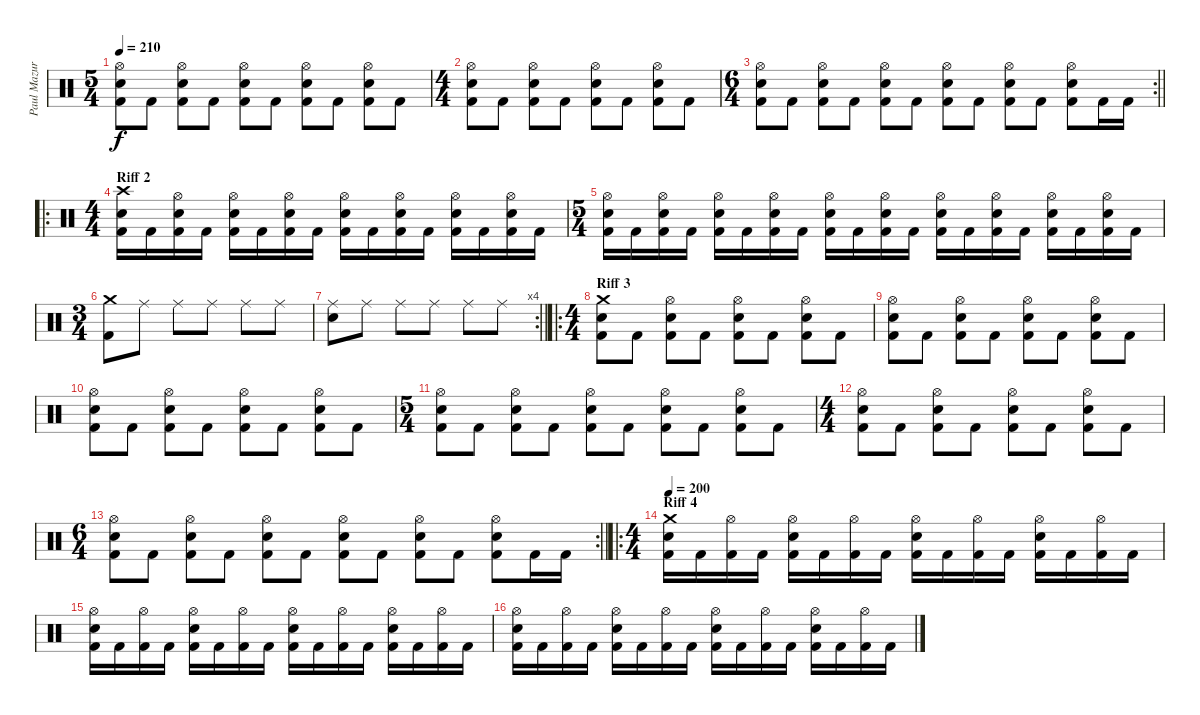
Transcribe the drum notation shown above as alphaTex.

\track ("Paul Mazurkiewicz" "Paul Mazur") {instrument percussion}
\staff {score}
\articulation defaults
\ts (5 4)
\tempo 210
\clef neutral
\ks c
("Hi-Hat (open)" "Electric Snare (hit)" "Kick (hit) 2").8{dy f} "Kick (hit) 2".8 ("Hi-Hat (open)" "Electric Snare (hit)" "Kick (hit) 2").8 "Kick (hit) 2".8 ("Hi-Hat (open)" "Electric Snare (hit)" "Kick (hit) 2").8 "Kick (hit) 2".8 ("Hi-Hat (open)" "Electric Snare (hit)" "Kick (hit) 2").8 "Kick (hit) 2".8 ("Hi-Hat (open)" "Electric Snare (hit)" "Kick (hit) 2").8 "Kick (hit) 2".8 |
\ts (4 4)
("Hi-Hat (open)" "Electric Snare (hit)" "Kick (hit) 2").8 "Kick (hit) 2".8 ("Hi-Hat (open)" "Electric Snare (hit)" "Kick (hit) 2").8 "Kick (hit) 2".8 ("Hi-Hat (open)" "Electric Snare (hit)" "Kick (hit) 2").8 "Kick (hit) 2".8 ("Hi-Hat (open)" "Electric Snare (hit)" "Kick (hit) 2").8 "Kick (hit) 2".8 |
\rc 2
\ts (6 4)
\barLineRight lightlight
("Hi-Hat (open)" "Electric Snare (hit)" "Kick (hit) 2").8 "Kick (hit) 2".8 ("Hi-Hat (open)" "Electric Snare (hit)" "Kick (hit) 2").8 "Kick (hit) 2".8 ("Hi-Hat (open)" "Electric Snare (hit)" "Kick (hit) 2").8 "Kick (hit) 2".8 ("Hi-Hat (open)" "Electric Snare (hit)" "Kick (hit) 2").8 "Kick (hit) 2".8 ("Hi-Hat (open)" "Electric Snare (hit)" "Kick (hit) 2").8 "Kick (hit) 2".8 ("Hi-Hat (open)" "Electric Snare (hit)" "Kick (hit) 2").8 "Kick (hit) 2".16 "Kick (hit) 2".16 |
\ro
\ts (4 4)
\section ("" "Riff 2")
("Crash high (hit)" "Electric Snare (hit)" "Kick (hit) 2").16 "Kick (hit) 2".16 ("Hi-Hat (open)" "Electric Snare (hit)" "Kick (hit) 2").16 "Kick (hit) 2".16 ("Hi-Hat (open)" "Electric Snare (hit)" "Kick (hit) 2").16 "Kick (hit) 2".16 ("Hi-Hat (open)" "Electric Snare (hit)" "Kick (hit) 2").16 "Kick (hit) 2".16 ("Hi-Hat (open)" "Electric Snare (hit)" "Kick (hit) 2").16 "Kick (hit) 2".16 ("Hi-Hat (open)" "Electric Snare (hit)" "Kick (hit) 2").16 "Kick (hit) 2".16 ("Hi-Hat (open)" "Electric Snare (hit)" "Kick (hit) 2").16 "Kick (hit) 2".16 ("Hi-Hat (open)" "Electric Snare (hit)" "Kick (hit) 2").16 "Kick (hit) 2".16 |
\ts (5 4)
("Hi-Hat (open)" "Electric Snare (hit)" "Kick (hit) 2").16 "Kick (hit) 2".16 ("Hi-Hat (open)" "Electric Snare (hit)" "Kick (hit) 2").16 "Kick (hit) 2".16 ("Hi-Hat (open)" "Electric Snare (hit)" "Kick (hit) 2").16 "Kick (hit) 2".16 ("Hi-Hat (open)" "Electric Snare (hit)" "Kick (hit) 2").16 "Kick (hit) 2".16 ("Hi-Hat (open)" "Electric Snare (hit)" "Kick (hit) 2").16 "Kick (hit) 2".16 ("Hi-Hat (open)" "Electric Snare (hit)" "Kick (hit) 2").16 "Kick (hit) 2".16 ("Hi-Hat (open)" "Electric Snare (hit)" "Kick (hit) 2").16 "Kick (hit) 2".16 ("Hi-Hat (open)" "Electric Snare (hit)" "Kick (hit) 2").16 "Kick (hit) 2".16 ("Hi-Hat (open)" "Electric Snare (hit)" "Kick (hit) 2").16 "Kick (hit) 2".16 ("Hi-Hat (open)" "Electric Snare (hit)" "Kick (hit) 2").16 "Kick (hit) 2".16 |
\ts (3 4)
("Crash medium (hit)" "Kick (hit) 2").8 "Ride (middle)".8 "Ride (middle)".8 "Ride (middle)".8 "Ride (middle)".8 "Ride (middle)".8 |
\rc 4
\barLineRight lightlight
("Ride (middle)" "Electric Snare (hit)").8 "Ride (middle)".8 "Ride (middle)".8 "Ride (middle)".8 "Ride (middle)".8 "Ride (middle)".8 |
\ro
\ts (4 4)
\section ("" "Riff 3")
("Crash medium (hit)" "Electric Snare (hit)" "Kick (hit) 2").8 "Kick (hit) 2".8 ("Hi-Hat (open)" "Electric Snare (hit)" "Kick (hit) 2").8 "Kick (hit) 2".8 ("Hi-Hat (open)" "Electric Snare (hit)" "Kick (hit) 2").8 "Kick (hit) 2".8 ("Hi-Hat (open)" "Electric Snare (hit)" "Kick (hit) 2").8 "Kick (hit) 2".8 |
("Hi-Hat (open)" "Electric Snare (hit)" "Kick (hit) 2").8 "Kick (hit) 2".8 ("Hi-Hat (open)" "Electric Snare (hit)" "Kick (hit) 2").8 "Kick (hit) 2".8 ("Hi-Hat (open)" "Electric Snare (hit)" "Kick (hit) 2").8 "Kick (hit) 2".8 ("Hi-Hat (open)" "Electric Snare (hit)" "Kick (hit) 2").8 "Kick (hit) 2".8 |
("Hi-Hat (open)" "Electric Snare (hit)" "Kick (hit) 2").8 "Kick (hit) 2".8 ("Hi-Hat (open)" "Electric Snare (hit)" "Kick (hit) 2").8 "Kick (hit) 2".8 ("Hi-Hat (open)" "Electric Snare (hit)" "Kick (hit) 2").8 "Kick (hit) 2".8 ("Hi-Hat (open)" "Electric Snare (hit)" "Kick (hit) 2").8 "Kick (hit) 2".8 |
\ts (5 4)
("Hi-Hat (open)" "Electric Snare (hit)" "Kick (hit) 2").8 "Kick (hit) 2".8 ("Hi-Hat (open)" "Electric Snare (hit)" "Kick (hit) 2").8 "Kick (hit) 2".8 ("Hi-Hat (open)" "Electric Snare (hit)" "Kick (hit) 2").8 "Kick (hit) 2".8 ("Hi-Hat (open)" "Electric Snare (hit)" "Kick (hit) 2").8 "Kick (hit) 2".8 ("Hi-Hat (open)" "Electric Snare (hit)" "Kick (hit) 2").8 "Kick (hit) 2".8 |
\ts (4 4)
("Hi-Hat (open)" "Electric Snare (hit)" "Kick (hit) 2").8 "Kick (hit) 2".8 ("Hi-Hat (open)" "Electric Snare (hit)" "Kick (hit) 2").8 "Kick (hit) 2".8 ("Hi-Hat (open)" "Electric Snare (hit)" "Kick (hit) 2").8 "Kick (hit) 2".8 ("Hi-Hat (open)" "Electric Snare (hit)" "Kick (hit) 2").8 "Kick (hit) 2".8 |
\rc 2
\ts (6 4)
\barLineRight lightlight
("Hi-Hat (open)" "Electric Snare (hit)" "Kick (hit) 2").8 "Kick (hit) 2".8 ("Hi-Hat (open)" "Electric Snare (hit)" "Kick (hit) 2").8 "Kick (hit) 2".8 ("Hi-Hat (open)" "Electric Snare (hit)" "Kick (hit) 2").8 "Kick (hit) 2".8 ("Hi-Hat (open)" "Electric Snare (hit)" "Kick (hit) 2").8 "Kick (hit) 2".8 ("Hi-Hat (open)" "Electric Snare (hit)" "Kick (hit) 2").8 "Kick (hit) 2".8 ("Hi-Hat (open)" "Electric Snare (hit)" "Kick (hit) 2").8 "Kick (hit) 2".16 "Kick (hit) 2".16 |
\ro
\ts (4 4)
\section ("" "Riff 4")
\tempo 200
("Crash medium (hit)" "Electric Snare (hit)" "Kick (hit) 2").16 "Kick (hit) 2".16 ("Hi-Hat (open)" "Kick (hit) 2").16 "Kick (hit) 2".16 ("Hi-Hat (open)" "Electric Snare (hit)" "Kick (hit) 2").16 "Kick (hit) 2".16 ("Hi-Hat (open)" "Kick (hit) 2").16 "Kick (hit) 2".16 ("Hi-Hat (open)" "Electric Snare (hit)" "Kick (hit) 2").16 "Kick (hit) 2".16 ("Hi-Hat (open)" "Kick (hit) 2").16 "Kick (hit) 2".16 ("Hi-Hat (open)" "Electric Snare (hit)" "Kick (hit) 2").16 "Kick (hit) 2".16 ("Hi-Hat (open)" "Kick (hit) 2").16 "Kick (hit) 2".16 |
("Hi-Hat (open)" "Electric Snare (hit)" "Kick (hit) 2").16 "Kick (hit) 2".16 ("Hi-Hat (open)" "Kick (hit) 2").16 "Kick (hit) 2".16 ("Hi-Hat (open)" "Electric Snare (hit)" "Kick (hit) 2").16 "Kick (hit) 2".16 ("Hi-Hat (open)" "Kick (hit) 2").16 "Kick (hit) 2".16 ("Hi-Hat (open)" "Electric Snare (hit)" "Kick (hit) 2").16 "Kick (hit) 2".16 ("Hi-Hat (open)" "Kick (hit) 2").16 "Kick (hit) 2".16 ("Hi-Hat (open)" "Electric Snare (hit)" "Kick (hit) 2").16 "Kick (hit) 2".16 ("Hi-Hat (open)" "Kick (hit) 2").16 "Kick (hit) 2".16 |
("Hi-Hat (open)" "Electric Snare (hit)" "Kick (hit) 2").16 "Kick (hit) 2".16 ("Hi-Hat (open)" "Kick (hit) 2").16 "Kick (hit) 2".16 ("Hi-Hat (open)" "Electric Snare (hit)" "Kick (hit) 2").16 "Kick (hit) 2".16 ("Hi-Hat (open)" "Kick (hit) 2").16 "Kick (hit) 2".16 ("Hi-Hat (open)" "Electric Snare (hit)" "Kick (hit) 2").16 "Kick (hit) 2".16 ("Hi-Hat (open)" "Kick (hit) 2").16 "Kick (hit) 2".16 ("Hi-Hat (open)" "Electric Snare (hit)" "Kick (hit) 2").16 "Kick (hit) 2".16 ("Hi-Hat (open)" "Kick (hit) 2").16 "Kick (hit) 2".16
